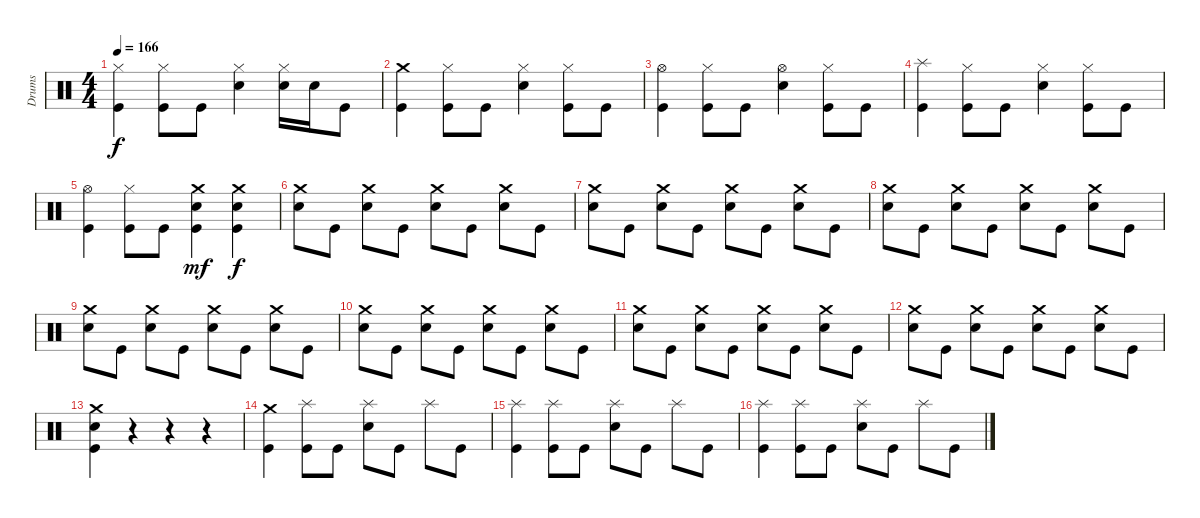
\track ("Drums" "Drums") {instrument percussion}
\staff {score}
\articulation defaults
\ts (4 4)
\tempo 166
\clef neutral
\ks c
("Hi-Hat (closed)" "Kick (hit)").4{dy f} ("Hi-Hat (closed)" "Kick (hit)").8 "Kick (hit)".8 ("Hi-Hat (closed)" "Electric Snare (hit)").4 ("Hi-Hat (closed)" "Electric Snare (hit)").16 "Electric Snare (hit)".16 "Kick (hit)".8 |
("Crash medium (hit)" "Kick (hit)").4 ("Hi-Hat (closed)" "Kick (hit)").8 "Kick (hit)".8 ("Hi-Hat (closed)" "Electric Snare (hit)").4 ("Hi-Hat (closed)" "Kick (hit)").8 "Kick (hit)".8 |
("Hi-Hat (open)" "Kick (hit)").4 ("Hi-Hat (closed)" "Kick (hit)").8 "Kick (hit)".8 ("Hi-Hat (open)" "Electric Snare (hit)").4 ("Hi-Hat (closed)" "Kick (hit)").8 "Kick (hit)".8 |
("Splash (hit)" "Kick (hit)").4 ("Hi-Hat (closed)" "Kick (hit)").8 "Kick (hit)".8 ("Hi-Hat (closed)" "Electric Snare (hit)").4 ("Hi-Hat (closed)" "Kick (hit)").8 "Kick (hit)".8 |
("Hi-Hat (open)" "Kick (hit)").4 ("Hi-Hat (closed)" "Kick (hit)").8 "Kick (hit)".8 ("Crash medium (hit)" "Electric Snare (hit)" "Kick (hit)").4{dy mf} ("Crash medium (hit)" "Electric Snare (hit)" "Kick (hit)").4{dy f} |
("Crash medium (hit)" "Electric Snare (hit)").8 "Kick (hit)".8 ("Crash medium (hit)" "Electric Snare (hit)").8 "Kick (hit)".8 ("Crash medium (hit)" "Electric Snare (hit)").8 "Kick (hit)".8 ("Crash medium (hit)" "Electric Snare (hit)").8 "Kick (hit)".8 |
("Crash medium (hit)" "Electric Snare (hit)").8 "Kick (hit)".8 ("Crash medium (hit)" "Electric Snare (hit)").8 "Kick (hit)".8 ("Crash medium (hit)" "Electric Snare (hit)").8 "Kick (hit)".8 ("Crash medium (hit)" "Electric Snare (hit)").8 "Kick (hit)".8 |
("Crash medium (hit)" "Electric Snare (hit)").8 "Kick (hit)".8 ("Crash medium (hit)" "Electric Snare (hit)").8 "Kick (hit)".8 ("Crash medium (hit)" "Electric Snare (hit)").8 "Kick (hit)".8 ("Crash medium (hit)" "Electric Snare (hit)").8 "Kick (hit)".8 |
("Crash medium (hit)" "Electric Snare (hit)").8 "Kick (hit)".8 ("Crash medium (hit)" "Electric Snare (hit)").8 "Kick (hit)".8 ("Crash medium (hit)" "Electric Snare (hit)").8 "Kick (hit)".8 ("Crash medium (hit)" "Electric Snare (hit)").8 "Kick (hit)".8 |
("Crash medium (hit)" "Electric Snare (hit)").8 "Kick (hit)".8 ("Crash medium (hit)" "Electric Snare (hit)").8 "Kick (hit)".8 ("Crash medium (hit)" "Electric Snare (hit)").8 "Kick (hit)".8 ("Crash medium (hit)" "Electric Snare (hit)").8 "Kick (hit)".8 |
("Crash medium (hit)" "Electric Snare (hit)").8 "Kick (hit)".8 ("Crash medium (hit)" "Electric Snare (hit)").8 "Kick (hit)".8 ("Crash medium (hit)" "Electric Snare (hit)").8 "Kick (hit)".8 ("Crash medium (hit)" "Electric Snare (hit)").8 "Kick (hit)".8 |
("Crash medium (hit)" "Electric Snare (hit)").8 "Kick (hit)".8 ("Crash medium (hit)" "Electric Snare (hit)").8 "Kick (hit)".8 ("Crash medium (hit)" "Electric Snare (hit)").8 "Kick (hit)".8 ("Crash medium (hit)" "Electric Snare (hit)").8 "Kick (hit)".8 |
("Crash medium (hit)" "Electric Snare (hit)" "Kick (hit)").4 r.4 r.4 r.4 |
("Crash medium (hit)" "Kick (hit)").4 ("Splash (hit)" "Kick (hit)").8 "Kick (hit)".8 ("Splash (hit)" "Electric Snare (hit)").8 "Kick (hit)".8 "Splash (hit)".8 "Kick (hit)".8 |
("Splash (hit)" "Kick (hit)").4 ("Splash (hit)" "Kick (hit)").8 "Kick (hit)".8 ("Splash (hit)" "Electric Snare (hit)").8 "Kick (hit)".8 "Splash (hit)".8 "Kick (hit)".8 |
("Splash (hit)" "Kick (hit)").4 ("Splash (hit)" "Kick (hit)").8 "Kick (hit)".8 ("Splash (hit)" "Electric Snare (hit)").8 "Kick (hit)".8 "Splash (hit)".8 "Kick (hit)".8
